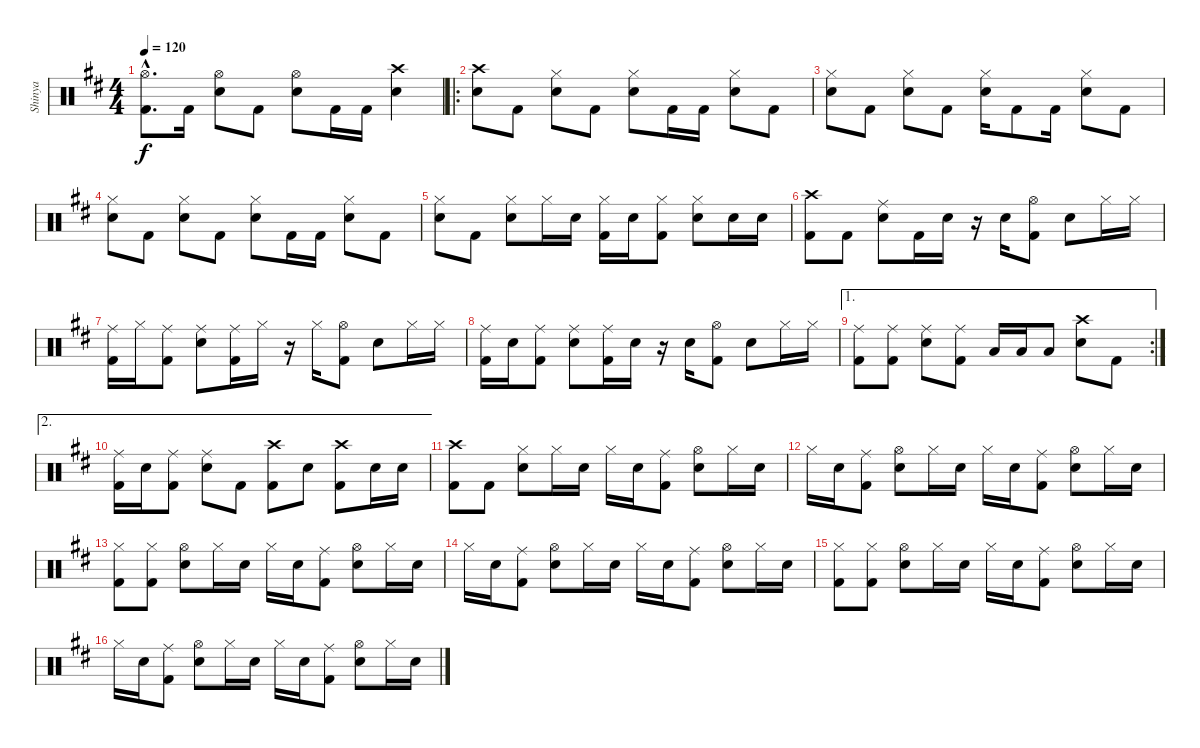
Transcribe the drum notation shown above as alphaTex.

\track ("Shinya" "Shinya") {instrument percussion}
\staff {score}
\articulation defaults
\ts (4 4)
\tempo 120
\clef neutral
\ks bminor
("Hi-Hat (open)"{hac} "Kick (hit) 2"{hac}).8{d dy f} "Kick (hit) 2".16 ("Hi-Hat (open)" "Snare (hit) 2").8 "Kick (hit) 2".8 ("Hi-Hat (open)" "Snare (hit) 2").8 "Kick (hit) 2".16 "Kick (hit) 2".16 ("Crash high (hit)" "Snare (hit) 2").4 |
\ro
("Crash high (hit)" "Snare (hit) 2").8 "Kick (hit) 2".8 ("Hi-Hat (closed)" "Snare (hit) 2").8 "Kick (hit) 2".8 ("Hi-Hat (closed)" "Snare (hit) 2").8 "Kick (hit) 2".16 "Kick (hit) 2".16 ("Hi-Hat (closed)" "Snare (hit) 2").8 "Kick (hit) 2".8 |
("Hi-Hat (closed)" "Snare (hit) 2").8 "Kick (hit) 2".8 ("Hi-Hat (closed)" "Snare (hit) 2").8 "Kick (hit) 2".8 ("Hi-Hat (closed)" "Snare (hit) 2").16 "Kick (hit) 2".8 "Kick (hit) 2".16 ("Hi-Hat (closed)" "Snare (hit) 2").8 "Kick (hit) 2".8 |
("Hi-Hat (closed)" "Snare (hit) 2").8 "Kick (hit) 2".8 ("Hi-Hat (closed)" "Snare (hit) 2").8 "Kick (hit) 2".8 ("Hi-Hat (closed)" "Snare (hit) 2").8 "Kick (hit) 2".16 "Kick (hit) 2".16 ("Hi-Hat (closed)" "Snare (hit) 2").8 "Kick (hit) 2".8 |
("Hi-Hat (closed)" "Snare (hit) 2").8 "Kick (hit) 2".8 ("Hi-Hat (closed)" "Snare (hit) 2").8 "Hi-Hat (closed)".16 "Snare (hit) 2".16 ("Hi-Hat (closed)" "Kick (hit) 2").16 "Snare (hit) 2".16 ("Hi-Hat (closed)" "Kick (hit) 2").8 ("Hi-Hat (closed)" "Snare (hit) 2").8 "Snare (hit) 2".16 "Snare (hit) 2".16 |
("Crash high (hit)" "Kick (hit) 2").8 "Kick (hit) 2".8 ("Ride (middle)" "Snare (hit) 2").8 "Kick (hit) 2".16 "Snare (hit) 2".16 r.16 "Snare (hit) 2".16 ("Hi-Hat (open)" "Kick (hit) 2").8 "Snare (hit) 2".8 "Hi-Hat (closed)".16 "Hi-Hat (closed)".16 |
("Ride (middle)" "Kick (hit) 2").16 "Hi-Hat (closed)".16 ("Ride (middle)" "Kick (hit) 2").8 ("Ride (middle)" "Snare (hit) 2").8 ("Ride (middle)" "Kick (hit) 2").16 "Hi-Hat (closed)".16 r.16 "Hi-Hat (closed)".16 ("Hi-Hat (open)" "Kick (hit) 2").8 "Snare (hit) 2".8 "Hi-Hat (closed)".16 "Hi-Hat (closed)".16 |
("Ride (middle)" "Kick (hit) 2").16 "Snare (hit) 2".16 ("Ride (middle)" "Kick (hit) 2").8 ("Ride (middle)" "Snare (hit) 2").8 ("Ride (middle)" "Kick (hit) 2").16 "Snare (hit) 2".16 r.16 "Snare (hit) 2".16 ("Hi-Hat (open)" "Kick (hit) 2").8 "Snare (hit) 2".8 "Hi-Hat (closed)".16 "Hi-Hat (closed)".16 |
\ae 1
\rc 2
("Ride (middle)" "Kick (hit) 2").8 ("Ride (middle)" "Kick (hit) 2").8 ("Ride (middle)" "Snare (hit) 2").8 ("Ride (middle)" "Kick (hit) 2").8 "Low Tom (hit)".16 "Low Tom (hit)".16 "Low Floor Tom (hit)".8 ("Crash high (hit)" "Snare (hit) 2").8 "Kick (hit) 2".8 |
\ae 2
("Ride (middle)" "Kick (hit) 2").16 "Snare (hit) 2".16 ("Ride (middle)" "Kick (hit) 2").8 ("Ride (middle)" "Snare (hit) 2").8 "Kick (hit) 2".8 ("Crash high (hit)" "Kick (hit) 2").8 "Snare (hit) 2".8 ("Crash high (hit)" "Kick (hit) 2").8 "Snare (hit) 2".16 "Snare (hit) 2".16 |
("Kick (hit) 2" "Crash high (hit)").8{volume 13} "Kick (hit) 2".8 ("Hi-Hat (closed)" "Snare (hit) 2").8 "Hi-Hat (closed)".16 "Snare (hit) 2".16 "Hi-Hat (closed)".16 "Snare (hit) 2".16 ("Ride (middle)" "Kick (hit) 2").8 ("Hi-Hat (open)" "Snare (hit) 2").8 "Hi-Hat (closed)".16 "Snare (hit) 2".16 |
"Hi-Hat (closed)".16 "Snare (hit) 2".16 ("Ride (middle)" "Kick (hit) 2").8 ("Hi-Hat (open)" "Snare (hit) 2").8 "Hi-Hat (closed)".16 "Snare (hit) 2".16 "Hi-Hat (closed)".16 "Snare (hit) 2".16 ("Ride (middle)" "Kick (hit) 2").8 ("Hi-Hat (open)" "Snare (hit) 2").8 "Hi-Hat (closed)".16 "Snare (hit) 2".16 |
("Kick (hit) 2" "Hi-Hat (closed)").8 ("Hi-Hat (closed)" "Kick (hit) 2").8 ("Hi-Hat (open)" "Snare (hit) 2").8 "Hi-Hat (closed)".16 "Snare (hit) 2".16 "Hi-Hat (closed)".16 "Snare (hit) 2".16 ("Ride (middle)" "Kick (hit) 2").8 ("Hi-Hat (open)" "Snare (hit) 2").8 "Hi-Hat (closed)".16 "Snare (hit) 2".16 |
"Hi-Hat (closed)".16 "Snare (hit) 2".16 ("Ride (middle)" "Kick (hit) 2").8 ("Hi-Hat (open)" "Snare (hit) 2").8 "Hi-Hat (closed)".16 "Snare (hit) 2".16 "Hi-Hat (closed)".16 "Snare (hit) 2".16 ("Ride (middle)" "Kick (hit) 2").8 ("Hi-Hat (open)" "Snare (hit) 2").8 "Hi-Hat (closed)".16 "Snare (hit) 2".16 |
("Kick (hit) 2" "Hi-Hat (closed)").8 ("Hi-Hat (closed)" "Kick (hit) 2").8 ("Hi-Hat (open)" "Snare (hit) 2").8 "Hi-Hat (closed)".16 "Snare (hit) 2".16 "Hi-Hat (closed)".16 "Snare (hit) 2".16 ("Ride (middle)" "Kick (hit) 2").8 ("Hi-Hat (open)" "Snare (hit) 2").8 "Hi-Hat (closed)".16 "Snare (hit) 2".16 |
"Hi-Hat (closed)".16 "Snare (hit) 2".16 ("Ride (middle)" "Kick (hit) 2").8 ("Hi-Hat (open)" "Snare (hit) 2").8 "Hi-Hat (closed)".16 "Snare (hit) 2".16 "Hi-Hat (closed)".16 "Snare (hit) 2".16 ("Ride (middle)" "Kick (hit) 2").8 ("Hi-Hat (open)" "Snare (hit) 2").8 "Hi-Hat (closed)".16 "Snare (hit) 2".16
